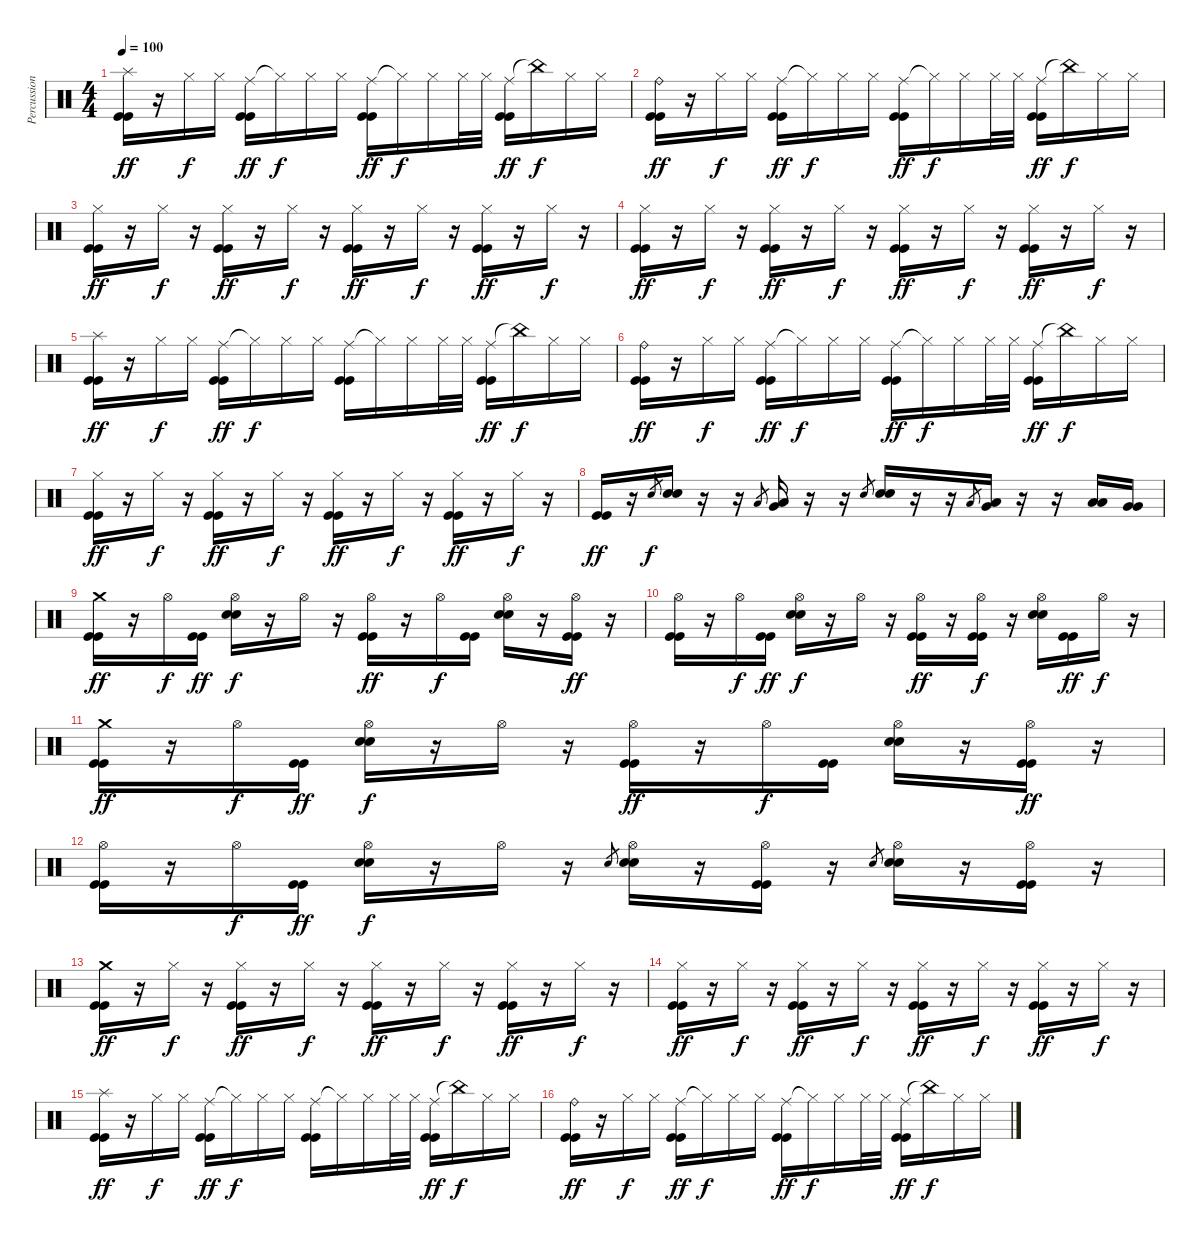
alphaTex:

\track ("Percussions" "Percussion") {instrument percussion}
\staff {score}
\articulation defaults
\ts (4 4)
\tempo 100
\clef neutral
\ks c
("Splash (hit)" "Kick (hit)" "Kick (hit)").16{dy ff} r.16 "Hi-Hat (closed)".16{dy f} "Hi-Hat (closed)".16 ("Ride (middle)" "Kick (hit)" "Kick (hit)").16{dy ff} "Hi-Hat (closed)"{t}.16{dy f} "Hi-Hat (closed)".16 "Hi-Hat (closed)".16 ("Ride (middle)" "Kick (hit)" "Kick (hit)").16{dy ff} "Hi-Hat (closed)"{t}.16{dy f} "Hi-Hat (closed)".16 "Hi-Hat (closed)".32 "Hi-Hat (closed)".32 ("Ride (middle)" "Kick (hit)" "Kick (hit)").16{dy ff} "China (hit)"{t}.16{dy f} "Hi-Hat (closed)".16 "Hi-Hat (closed)".16 |
("Ride (bell)" "Kick (hit)" "Kick (hit)").16{dy ff} r.16 "Hi-Hat (closed)".16{dy f} "Hi-Hat (closed)".16 ("Ride (middle)" "Kick (hit)" "Kick (hit)").16{dy ff} "Hi-Hat (closed)"{t}.16{dy f} "Hi-Hat (closed)".16 "Hi-Hat (closed)".16 ("Ride (middle)" "Kick (hit)" "Kick (hit)").16{dy ff} "Hi-Hat (closed)"{t}.16{dy f} "Hi-Hat (closed)".16 "Hi-Hat (closed)".32 "Hi-Hat (closed)".32 ("Ride (middle)" "Kick (hit)" "Kick (hit)").16{dy ff} "China (hit)"{t}.16{dy f} "Hi-Hat (closed)".16 "Hi-Hat (closed)".16 |
("Hi-Hat (closed)" "Kick (hit)" "Kick (hit)").16{dy ff} r.16 "Hi-Hat (closed)".16{dy f} r.16 ("Hi-Hat (closed)" "Kick (hit)" "Kick (hit)").16{dy ff} r.16 "Hi-Hat (closed)".16{dy f} r.16 ("Hi-Hat (closed)" "Kick (hit)" "Kick (hit)").16{dy ff} r.16 "Hi-Hat (closed)".16{dy f} r.16 ("Hi-Hat (closed)" "Kick (hit)" "Kick (hit)").16{dy ff} r.16 "Hi-Hat (closed)".16{dy f} r.16 |
("Hi-Hat (closed)" "Kick (hit)" "Kick (hit)").16{dy ff} r.16 "Hi-Hat (closed)".16{dy f} r.16 ("Hi-Hat (closed)" "Kick (hit)" "Kick (hit)").16{dy ff} r.16 "Hi-Hat (closed)".16{dy f} r.16 ("Hi-Hat (closed)" "Kick (hit)" "Kick (hit)").16{dy ff} r.16 "Hi-Hat (closed)".16{dy f} r.16 ("Hi-Hat (closed)" "Kick (hit)" "Kick (hit)").16{dy ff} r.16 "Hi-Hat (closed)".16{dy f} r.16 |
("Splash (hit)" "Kick (hit)" "Kick (hit)").16{dy ff} r.16 "Hi-Hat (closed)".16{dy f} "Hi-Hat (closed)".16 ("Ride (middle)" "Kick (hit)" "Kick (hit)").16{dy ff} "Hi-Hat (closed)"{t}.16{dy f} "Hi-Hat (closed)".16 "Hi-Hat (closed)".16 ("Ride (middle)" "Kick (hit)" "Kick (hit)").16 "Hi-Hat (closed)"{t}.16 "Hi-Hat (closed)".16 "Hi-Hat (closed)".32 "Hi-Hat (closed)".32 ("Ride (middle)" "Kick (hit)" "Kick (hit)").16{dy ff} "China (hit)"{t}.16{dy f} "Hi-Hat (closed)".16 "Hi-Hat (closed)".16 |
("Ride (bell)" "Kick (hit)" "Kick (hit)").16{dy ff} r.16 "Hi-Hat (closed)".16{dy f} "Hi-Hat (closed)".16 ("Ride (middle)" "Kick (hit)" "Kick (hit)").16{dy ff} "Hi-Hat (closed)"{t}.16{dy f} "Hi-Hat (closed)".16 "Hi-Hat (closed)".16 ("Ride (middle)" "Kick (hit)" "Kick (hit)").16{dy ff} "Hi-Hat (closed)"{t}.16{dy f} "Hi-Hat (closed)".16 "Hi-Hat (closed)".32 "Hi-Hat (closed)".32 ("Ride (middle)" "Kick (hit)" "Kick (hit)").16{dy ff} "China (hit)"{t}.16{dy f} "Hi-Hat (closed)".16 "Hi-Hat (closed)".16 |
("Hi-Hat (closed)" "Kick (hit)" "Kick (hit)").16{dy ff} r.16 "Hi-Hat (closed)".16{dy f} r.16 ("Hi-Hat (closed)" "Kick (hit)" "Kick (hit)").16{dy ff} r.16 "Hi-Hat (closed)".16{dy f} r.16 ("Hi-Hat (closed)" "Kick (hit)" "Kick (hit)").16{dy ff} r.16 "Hi-Hat (closed)".16{dy f} r.16 ("Hi-Hat (closed)" "Kick (hit)" "Kick (hit)").16{dy ff} r.16 "Hi-Hat (closed)".16{dy f} r.16 |
("Kick (hit)" "Kick (hit)").16{dy ff} r.16 "Electric Snare (hit)".8{gr dy f} ("Electric Snare (hit)" "Electric Snare (hit)").16 r.16 r.16 "Low Tom (hit)".8{gr} ("Low Tom (hit)" "Very Low Tom (hit)").16 r.16 r.16 "Electric Snare (hit)".8{gr} ("Electric Snare (hit)" "Electric Snare (hit)").16 r.16 r.16 "Low Tom (hit)".8{gr} ("Low Tom (hit)" "Very Low Tom (hit)").16 r.16 r.16 ("Low Tom (hit)" "Low Tom (hit)").16 ("Very Low Tom (hit)" "Very Low Tom (hit)").16 |
("Crash medium (hit)" "Kick (hit)" "Kick (hit)").16{dy ff} r.16 "Hi-Hat (open)".16{dy f} ("Kick (hit)" "Kick (hit)").16{dy ff} ("Hi-Hat (open)" "Electric Snare (hit)" "Electric Snare (hit)").16{dy f} r.16 "Hi-Hat (open)".16 r.16 ("Hi-Hat (open)" "Kick (hit)" "Kick (hit)").16{dy ff} r.16 "Hi-Hat (open)".16{dy f} ("Kick (hit)" "Kick (hit)").16 ("Hi-Hat (open)" "Electric Snare (hit)" "Electric Snare (hit)").16 r.16 ("Hi-Hat (open)" "Kick (hit)" "Kick (hit)").16{dy ff} r.16 |
("Hi-Hat (open)" "Kick (hit)" "Kick (hit)").16 r.16 "Hi-Hat (open)".16{dy f} ("Kick (hit)" "Kick (hit)").16{dy ff} ("Hi-Hat (open)" "Electric Snare (hit)" "Electric Snare (hit)").16{dy f} r.16 "Hi-Hat (open)".16 r.16 ("Hi-Hat (open)" "Kick (hit)" "Kick (hit)").16{dy ff} r.16 ("Hi-Hat (open)" "Kick (hit)" "Kick (hit)").16{dy f} r.16 ("Hi-Hat (open)" "Electric Snare (hit)" "Electric Snare (hit)").16 ("Kick (hit)" "Kick (hit)").16{dy ff} "Hi-Hat (open)".16{dy f} r.16 |
("Crash medium (hit)" "Kick (hit)" "Kick (hit)").16{dy ff} r.16 "Hi-Hat (open)".16{dy f} ("Kick (hit)" "Kick (hit)").16{dy ff} ("Hi-Hat (open)" "Electric Snare (hit)" "Electric Snare (hit)").16{dy f} r.16 "Hi-Hat (open)".16 r.16 ("Hi-Hat (open)" "Kick (hit)" "Kick (hit)").16{dy ff} r.16 "Hi-Hat (open)".16{dy f} ("Kick (hit)" "Kick (hit)").16 ("Hi-Hat (open)" "Electric Snare (hit)" "Electric Snare (hit)").16 r.16 ("Hi-Hat (open)" "Kick (hit)" "Kick (hit)").16{dy ff} r.16 |
("Hi-Hat (open)" "Kick (hit)" "Kick (hit)").16 r.16 "Hi-Hat (open)".16{dy f} ("Kick (hit)" "Kick (hit)").16{dy ff} ("Hi-Hat (open)" "Electric Snare (hit)" "Electric Snare (hit)").16{dy f} r.16 "Hi-Hat (open)".16 r.16 "Electric Snare (hit)".8{gr} ("Hi-Hat (open)" "Electric Snare (hit)" "Electric Snare (hit)").16 r.16 ("Hi-Hat (open)" "Kick (hit)" "Kick (hit)").16 r.16 "Electric Snare (hit)".8{gr} ("Hi-Hat (open)" "Electric Snare (hit)" "Electric Snare (hit)").16 r.16 ("Hi-Hat (open)" "Kick (hit)" "Kick (hit)").16 r.16 |
("Crash medium (hit)" "Kick (hit)" "Kick (hit)").16{dy ff} r.16 "Hi-Hat (closed)".16{dy f} r.16 ("Hi-Hat (closed)" "Kick (hit)" "Kick (hit)").16{dy ff} r.16 "Hi-Hat (closed)".16{dy f} r.16 ("Hi-Hat (closed)" "Kick (hit)" "Kick (hit)").16{dy ff} r.16 "Hi-Hat (closed)".16{dy f} r.16 ("Hi-Hat (closed)" "Kick (hit)" "Kick (hit)").16{dy ff} r.16 "Hi-Hat (closed)".16{dy f} r.16 |
("Hi-Hat (closed)" "Kick (hit)" "Kick (hit)").16{dy ff} r.16 "Hi-Hat (closed)".16{dy f} r.16 ("Hi-Hat (closed)" "Kick (hit)" "Kick (hit)").16{dy ff} r.16 "Hi-Hat (closed)".16{dy f} r.16 ("Hi-Hat (closed)" "Kick (hit)" "Kick (hit)").16{dy ff} r.16 "Hi-Hat (closed)".16{dy f} r.16 ("Hi-Hat (closed)" "Kick (hit)" "Kick (hit)").16{dy ff} r.16 "Hi-Hat (closed)".16{dy f} r.16 |
("Splash (hit)" "Kick (hit)" "Kick (hit)").16{dy ff} r.16 "Hi-Hat (closed)".16{dy f} "Hi-Hat (closed)".16 ("Ride (middle)" "Kick (hit)" "Kick (hit)").16{dy ff} "Hi-Hat (closed)"{t}.16{dy f} "Hi-Hat (closed)".16 "Hi-Hat (closed)".16 ("Ride (middle)" "Kick (hit)" "Kick (hit)").16 "Hi-Hat (closed)"{t}.16 "Hi-Hat (closed)".16 "Hi-Hat (closed)".32 "Hi-Hat (closed)".32 ("Ride (middle)" "Kick (hit)" "Kick (hit)").16{dy ff} "China (hit)"{t}.16{dy f} "Hi-Hat (closed)".16 "Hi-Hat (closed)".16 |
("Ride (bell)" "Kick (hit)" "Kick (hit)").16{dy ff} r.16 "Hi-Hat (closed)".16{dy f} "Hi-Hat (closed)".16 ("Ride (middle)" "Kick (hit)" "Kick (hit)").16{dy ff} "Hi-Hat (closed)"{t}.16{dy f} "Hi-Hat (closed)".16 "Hi-Hat (closed)".16 ("Ride (middle)" "Kick (hit)" "Kick (hit)").16{dy ff} "Hi-Hat (closed)"{t}.16{dy f} "Hi-Hat (closed)".16 "Hi-Hat (closed)".32 "Hi-Hat (closed)".32 ("Ride (middle)" "Kick (hit)" "Kick (hit)").16{dy ff} "China (hit)"{t}.16{dy f} "Hi-Hat (closed)".16 "Hi-Hat (closed)".16
